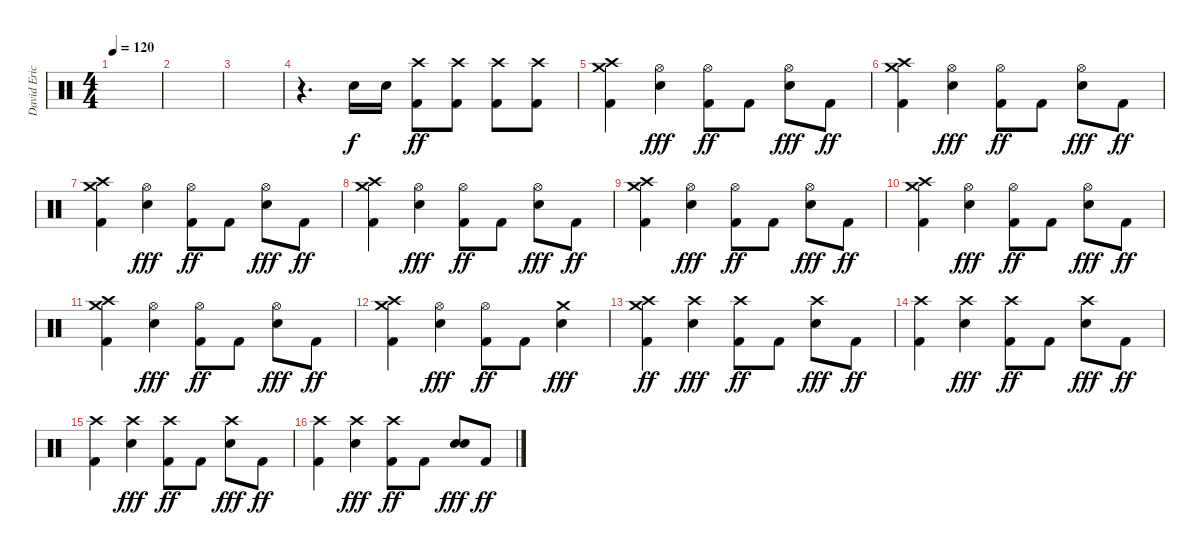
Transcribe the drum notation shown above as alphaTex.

\track ("David Eric Grohl" "David Eric") {instrument percussion}
\staff {score}
\articulation defaults
\ts (4 4)
\tempo 120
\clef neutral
\ks c
|
|
|
r.4{d} "Electric Snare (hit)".16 "Electric Snare (hit)".16 ("Crash high (hit)" "Kick (hit) 2").8{dy ff} ("Crash high (hit)" "Kick (hit) 2").8 ("Crash high (hit)" "Kick (hit) 2").8 ("Crash high (hit)" "Kick (hit) 2").8 |
("Crash medium (hit)" "Crash high (hit)" "Kick (hit) 2").4 ("Hi-Hat (open)" "Electric Snare (hit)").4{dy fff} ("Hi-Hat (open)" "Kick (hit) 2").8{dy ff} "Kick (hit) 2".8 ("Hi-Hat (open)" "Electric Snare (hit)").8{dy fff} "Kick (hit) 2".8{dy ff} |
("Crash medium (hit)" "Crash high (hit)" "Kick (hit) 2").4 ("Hi-Hat (open)" "Electric Snare (hit)").4{dy fff} ("Hi-Hat (open)" "Kick (hit) 2").8{dy ff} "Kick (hit) 2".8 ("Hi-Hat (open)" "Electric Snare (hit)").8{dy fff} "Kick (hit) 2".8{dy ff} |
("Crash medium (hit)" "Crash high (hit)" "Kick (hit) 2").4 ("Hi-Hat (open)" "Electric Snare (hit)").4{dy fff} ("Hi-Hat (open)" "Kick (hit) 2").8{dy ff} "Kick (hit) 2".8 ("Hi-Hat (open)" "Electric Snare (hit)").8{dy fff} "Kick (hit) 2".8{dy ff} |
("Crash medium (hit)" "Crash high (hit)" "Kick (hit) 2").4 ("Hi-Hat (open)" "Electric Snare (hit)").4{dy fff} ("Hi-Hat (open)" "Kick (hit) 2").8{dy ff} "Kick (hit) 2".8 ("Hi-Hat (open)" "Electric Snare (hit)").8{dy fff} "Kick (hit) 2".8{dy ff} |
("Crash medium (hit)" "Crash high (hit)" "Kick (hit) 2").4 ("Hi-Hat (open)" "Electric Snare (hit)").4{dy fff} ("Hi-Hat (open)" "Kick (hit) 2").8{dy ff} "Kick (hit) 2".8 ("Hi-Hat (open)" "Electric Snare (hit)").8{dy fff} "Kick (hit) 2".8{dy ff} |
("Crash medium (hit)" "Crash high (hit)" "Kick (hit) 2").4 ("Hi-Hat (open)" "Electric Snare (hit)").4{dy fff} ("Hi-Hat (open)" "Kick (hit) 2").8{dy ff} "Kick (hit) 2".8 ("Hi-Hat (open)" "Electric Snare (hit)").8{dy fff} "Kick (hit) 2".8{dy ff} |
("Crash medium (hit)" "Crash high (hit)" "Kick (hit) 2").4 ("Hi-Hat (open)" "Electric Snare (hit)").4{dy fff} ("Hi-Hat (open)" "Kick (hit) 2").8{dy ff} "Kick (hit) 2".8 ("Hi-Hat (open)" "Electric Snare (hit)").8{dy fff} "Kick (hit) 2".8{dy ff} |
("Crash medium (hit)" "Crash high (hit)" "Kick (hit) 2").4 ("Hi-Hat (open)" "Electric Snare (hit)").4{dy fff} ("Hi-Hat (open)" "Kick (hit) 2").8{dy ff} "Kick (hit) 2".8 ("Crash medium (hit)" "Electric Snare (hit)").4{dy fff} |
("Crash medium (hit)" "Crash high (hit)" "Kick (hit) 2").4{dy ff} ("Crash high (hit)" "Electric Snare (hit)").4{dy fff} ("Crash high (hit)" "Kick (hit) 2").8{dy ff} "Kick (hit) 2".8 ("Crash high (hit)" "Electric Snare (hit)").8{dy fff} "Kick (hit) 2".8{dy ff} |
("Crash high (hit)" "Kick (hit) 2").4 ("Crash high (hit)" "Electric Snare (hit)").4{dy fff} ("Crash high (hit)" "Kick (hit) 2").8{dy ff} "Kick (hit) 2".8 ("Crash high (hit)" "Electric Snare (hit)").8{dy fff} "Kick (hit) 2".8{dy ff} |
("Crash high (hit)" "Kick (hit) 2").4 ("Crash high (hit)" "Electric Snare (hit)").4{dy fff} ("Crash high (hit)" "Kick (hit) 2").8{dy ff} "Kick (hit) 2".8 ("Crash high (hit)" "Electric Snare (hit)").8{dy fff} "Kick (hit) 2".8{dy ff} |
("Crash high (hit)" "Kick (hit) 2").4 ("Crash high (hit)" "Electric Snare (hit)").4{dy fff} ("Crash high (hit)" "Kick (hit) 2").8{dy ff} "Kick (hit) 2".8 ("Electric Snare (hit)" "Electric Snare (hit)").8{dy fff} "Kick (hit) 2".8{dy ff}
